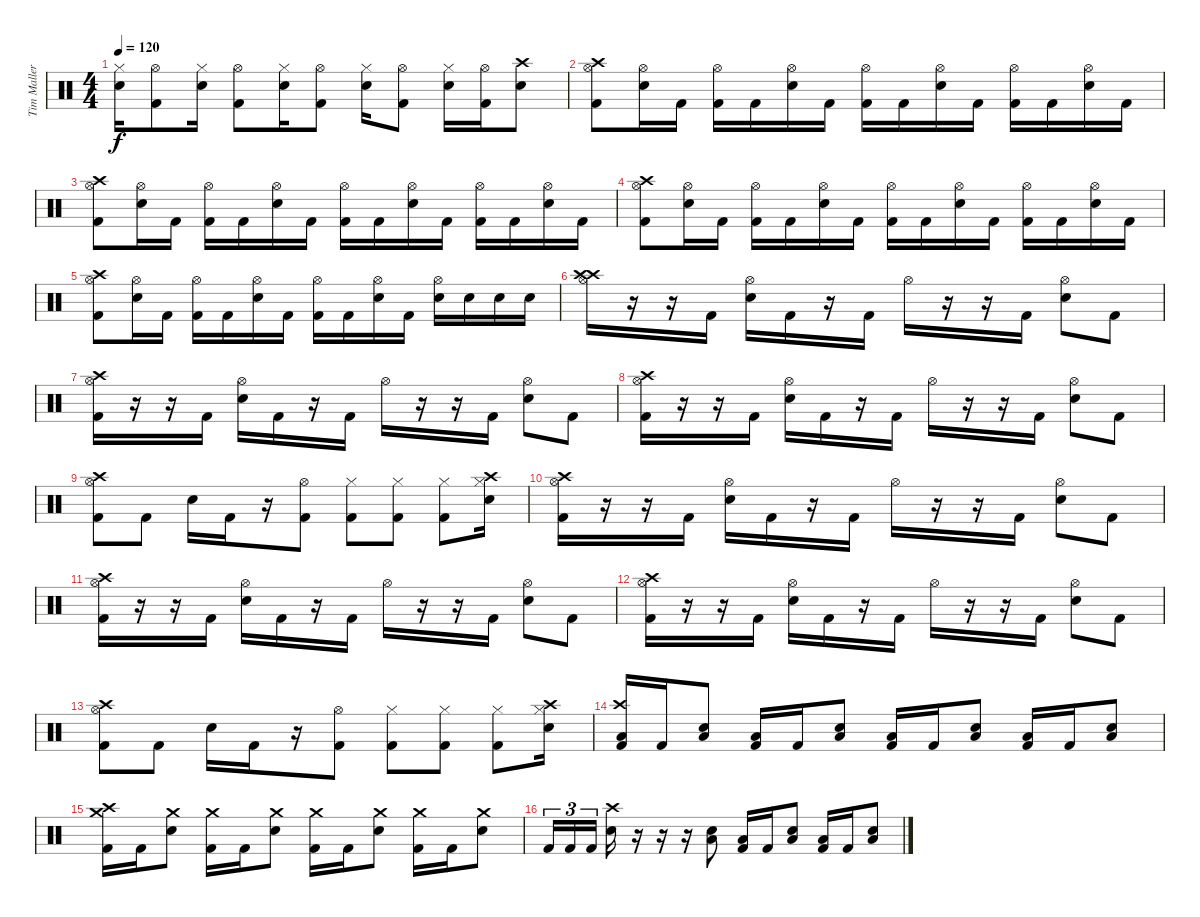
\track ("Tim Mallere" "Tim Maller") {instrument percussion}
\staff {score}
\articulation defaults
\ts (4 4)
\tempo 120
\clef neutral
\ks c
("Hi-Hat (closed)" "Electric Snare (hit)").16{dy f} ("Hi-Hat (open)" "Kick (hit) 2").8 ("Hi-Hat (closed)" "Electric Snare (hit)").16 ("Hi-Hat (open)" "Kick (hit) 2").8 ("Hi-Hat (closed)" "Electric Snare (hit)").16 ("Hi-Hat (open)" "Kick (hit) 2").8 ("Hi-Hat (closed)" "Electric Snare (hit)").16 ("Hi-Hat (open)" "Kick (hit) 2").8 ("Hi-Hat (closed)" "Electric Snare (hit)").16 ("Hi-Hat (open)" "Kick (hit) 2").16 ("Crash high (hit)" "Electric Snare (hit)").8 |
("Crash high (hit)" "Hi-Hat (open)" "Kick (hit) 2").8 ("Hi-Hat (open)" "Electric Snare (hit)").16 "Kick (hit) 2".16 ("Hi-Hat (open)" "Kick (hit) 2").16 "Kick (hit) 2".16 ("Hi-Hat (open)" "Electric Snare (hit)").16 "Kick (hit) 2".16 ("Hi-Hat (open)" "Kick (hit) 2").16 "Kick (hit) 2".16 ("Hi-Hat (open)" "Electric Snare (hit)").16 "Kick (hit) 2".16 ("Hi-Hat (open)" "Kick (hit) 2").16 "Kick (hit) 2".16 ("Hi-Hat (open)" "Electric Snare (hit)").16 "Kick (hit) 2".16 |
("Crash high (hit)" "Hi-Hat (open)" "Kick (hit) 2").8 ("Hi-Hat (open)" "Electric Snare (hit)").16 "Kick (hit) 2".16 ("Hi-Hat (open)" "Kick (hit) 2").16 "Kick (hit) 2".16 ("Hi-Hat (open)" "Electric Snare (hit)").16 "Kick (hit) 2".16 ("Hi-Hat (open)" "Kick (hit) 2").16 "Kick (hit) 2".16 ("Hi-Hat (open)" "Electric Snare (hit)").16 "Kick (hit) 2".16 ("Hi-Hat (open)" "Kick (hit) 2").16 "Kick (hit) 2".16 ("Hi-Hat (open)" "Electric Snare (hit)").16 "Kick (hit) 2".16 |
("Crash high (hit)" "Hi-Hat (open)" "Kick (hit) 2").8 ("Hi-Hat (open)" "Electric Snare (hit)").16 "Kick (hit) 2".16 ("Hi-Hat (open)" "Kick (hit) 2").16 "Kick (hit) 2".16 ("Hi-Hat (open)" "Electric Snare (hit)").16 "Kick (hit) 2".16 ("Hi-Hat (open)" "Kick (hit) 2").16 "Kick (hit) 2".16 ("Hi-Hat (open)" "Electric Snare (hit)").16 "Kick (hit) 2".16 ("Hi-Hat (open)" "Kick (hit) 2").16 "Kick (hit) 2".16 ("Hi-Hat (open)" "Electric Snare (hit)").16 "Kick (hit) 2".16 |
("Crash high (hit)" "Hi-Hat (open)" "Kick (hit) 2").8 ("Hi-Hat (open)" "Electric Snare (hit)").16 "Kick (hit) 2".16 ("Hi-Hat (open)" "Kick (hit) 2").16 "Kick (hit) 2".16 ("Hi-Hat (open)" "Electric Snare (hit)").16 "Kick (hit) 2".16 ("Hi-Hat (open)" "Kick (hit) 2").16 "Kick (hit) 2".16 ("Hi-Hat (open)" "Electric Snare (hit)").16 "Kick (hit) 2".16 ("Hi-Hat (open)" "Electric Snare (hit)").16 "Electric Snare (hit)".16 "Electric Snare (hit)".16 "Electric Snare (hit)".16 |
("Crash high (hit)" "Hi-Hat (open)" "Crash high (hit)").16 r.16 r.16 "Kick (hit) 2".16 ("Hi-Hat (open)" "Electric Snare (hit)").16 "Kick (hit) 2".16 r.16 "Kick (hit) 2".16 "Hi-Hat (open)".16 r.16 r.16 "Kick (hit) 2".16 ("Hi-Hat (open)" "Electric Snare (hit)").8 "Kick (hit) 2".8 |
("Crash high (hit)" "Hi-Hat (open)" "Kick (hit) 2").16 r.16 r.16 "Kick (hit) 2".16 ("Hi-Hat (open)" "Electric Snare (hit)").16 "Kick (hit) 2".16 r.16 "Kick (hit) 2".16 "Hi-Hat (open)".16 r.16 r.16 "Kick (hit) 2".16 ("Hi-Hat (open)" "Electric Snare (hit)").8 "Kick (hit) 2".8 |
("Crash high (hit)" "Hi-Hat (open)" "Kick (hit) 2").16 r.16 r.16 "Kick (hit) 2".16 ("Hi-Hat (open)" "Electric Snare (hit)").16 "Kick (hit) 2".16 r.16 "Kick (hit) 2".16 "Hi-Hat (open)".16 r.16 r.16 "Kick (hit) 2".16 ("Hi-Hat (open)" "Electric Snare (hit)").8 "Kick (hit) 2".8 |
("Crash high (hit)" "Hi-Hat (open)" "Kick (hit) 2").8 "Kick (hit) 2".8 "Electric Snare (hit)".16 "Kick (hit) 2".16 r.16 ("Hi-Hat (open)" "Kick (hit) 2").8 ("Hi-Hat (closed)" "Kick (hit) 2").8 ("Hi-Hat (closed)" "Kick (hit) 2").8 ("Hi-Hat (closed)" "Kick (hit) 2").8 ("Crash high (hit)" "Hi-Hat (closed)" "Electric Snare (hit)").16 |
("Crash high (hit)" "Hi-Hat (open)" "Kick (hit) 2").16 r.16 r.16 "Kick (hit) 2".16 ("Hi-Hat (open)" "Electric Snare (hit)").16 "Kick (hit) 2".16 r.16 "Kick (hit) 2".16 "Hi-Hat (open)".16 r.16 r.16 "Kick (hit) 2".16 ("Hi-Hat (open)" "Electric Snare (hit)").8 "Kick (hit) 2".8 |
("Crash high (hit)" "Hi-Hat (open)" "Kick (hit) 2").16 r.16 r.16 "Kick (hit) 2".16 ("Hi-Hat (open)" "Electric Snare (hit)").16 "Kick (hit) 2".16 r.16 "Kick (hit) 2".16 "Hi-Hat (open)".16 r.16 r.16 "Kick (hit) 2".16 ("Hi-Hat (open)" "Electric Snare (hit)").8 "Kick (hit) 2".8 |
("Crash high (hit)" "Hi-Hat (open)" "Kick (hit) 2").16 r.16 r.16 "Kick (hit) 2".16 ("Hi-Hat (open)" "Electric Snare (hit)").16 "Kick (hit) 2".16 r.16 "Kick (hit) 2".16 "Hi-Hat (open)".16 r.16 r.16 "Kick (hit) 2".16 ("Hi-Hat (open)" "Electric Snare (hit)").8 "Kick (hit) 2".8 |
("Crash high (hit)" "Hi-Hat (open)" "Kick (hit) 2").8 "Kick (hit) 2".8 "Electric Snare (hit)".16 "Kick (hit) 2".16 r.16 ("Hi-Hat (open)" "Kick (hit) 2").8 ("Hi-Hat (closed)" "Kick (hit) 2").8 ("Hi-Hat (closed)" "Kick (hit) 2").8 ("Hi-Hat (closed)" "Kick (hit) 2").8 ("Crash high (hit)" "Hi-Hat (closed)" "Electric Snare (hit)").16 |
("Crash high (hit)" "Low Floor Tom (hit)" "Kick (hit) 2").16 "Kick (hit) 2".16 ("Low Floor Tom (hit)" "Electric Snare (hit)").8 ("Low Floor Tom (hit)" "Kick (hit) 2").16 "Kick (hit) 2".16 ("Low Floor Tom (hit)" "Electric Snare (hit)").8 ("Low Floor Tom (hit)" "Kick (hit) 2").16 "Kick (hit) 2".16 ("Low Floor Tom (hit)" "Electric Snare (hit)").8 ("Low Floor Tom (hit)" "Kick (hit) 2").16 "Kick (hit) 2".16 ("Low Floor Tom (hit)" "Electric Snare (hit)").8 |
("Crash high (hit)" "Crash medium (hit)" "Kick (hit) 2").16 "Kick (hit) 2".16 ("Crash medium (hit)" "Electric Snare (hit)").8 ("Crash medium (hit)" "Kick (hit) 2").16 "Kick (hit) 2".16 ("Crash medium (hit)" "Electric Snare (hit)").8 ("Crash medium (hit)" "Kick (hit) 2").16 "Kick (hit) 2".16 ("Crash medium (hit)" "Electric Snare (hit)").8 ("Crash medium (hit)" "Kick (hit) 2").16 "Kick (hit) 2".16 ("Crash medium (hit)" "Electric Snare (hit)").8 |
"Kick (hit) 2".16{tu (3 2)} "Kick (hit) 2".16{tu (3 2)} "Kick (hit) 2".16{tu (3 2)} ("Crash high (hit)" "Electric Snare (hit)").16 r.16 r.16 r.16 ("Low Floor Tom (hit)" "Electric Snare (hit)").8 ("Low Floor Tom (hit)" "Kick (hit) 2").16 "Kick (hit) 2".16 ("Low Floor Tom (hit)" "Electric Snare (hit)").8 ("Low Floor Tom (hit)" "Kick (hit) 2").16 "Kick (hit) 2".16 ("Low Floor Tom (hit)" "Electric Snare (hit)").8
